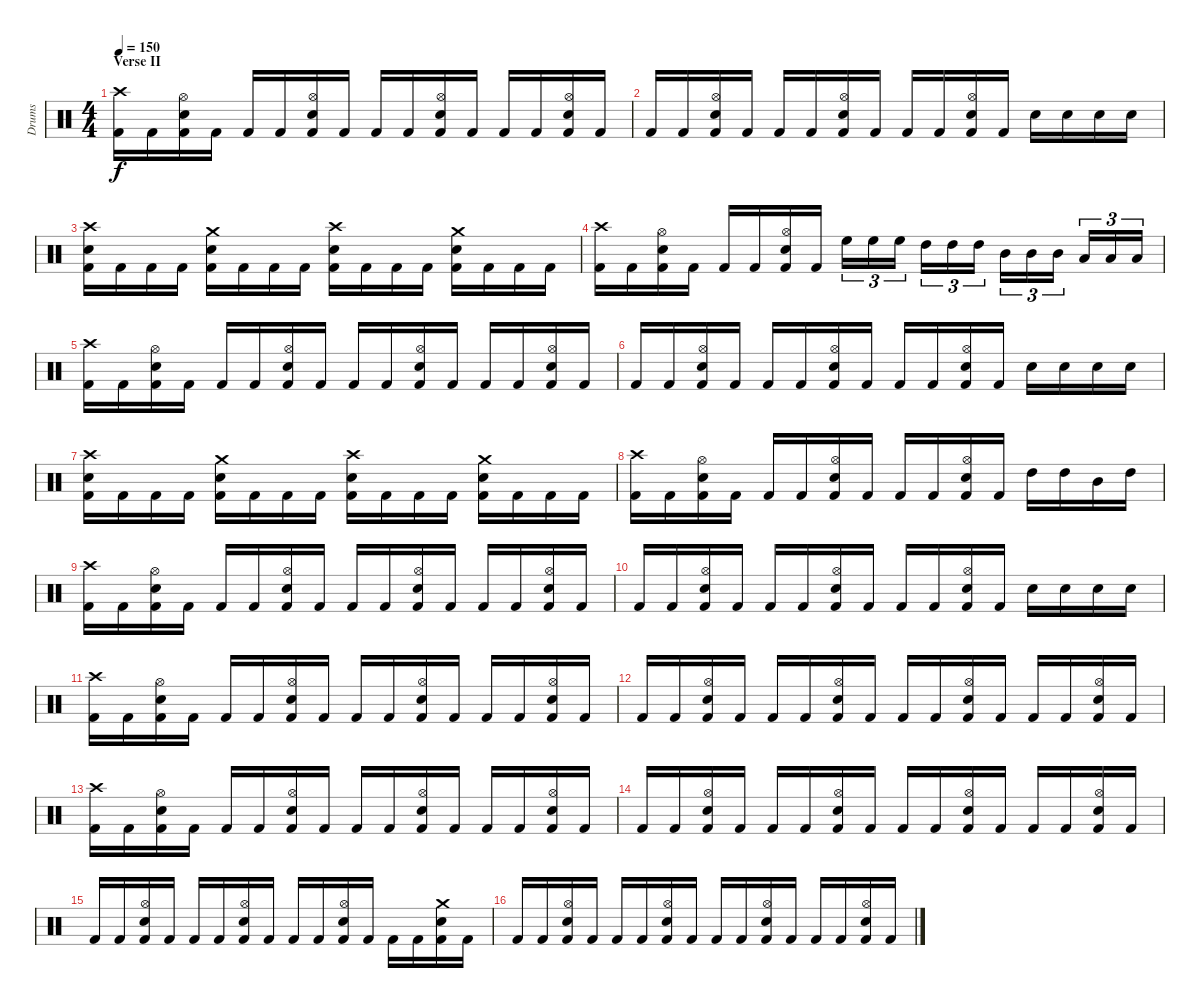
\track ("Drums" "Drums") {instrument percussion}
\staff {score}
\articulation defaults
\ts (4 4)
\section ("" "Verse II")
\tempo 150
\clef neutral
\ks c
("Crash high (hit)" "Kick (hit) 2").16{dy f} "Kick (hit) 2".16 ("Hi-Hat (open)" "Snare (hit) 2" "Kick (hit) 2").16 "Kick (hit) 2".16 "Kick (hit) 2".16 "Kick (hit) 2".16 ("Hi-Hat (open)" "Snare (hit) 2" "Kick (hit) 2").16 "Kick (hit) 2".16 "Kick (hit) 2".16 "Kick (hit) 2".16 ("Hi-Hat (open)" "Snare (hit) 2" "Kick (hit) 2").16 "Kick (hit) 2".16 "Kick (hit) 2".16 "Kick (hit) 2".16 ("Hi-Hat (open)" "Snare (hit) 2" "Kick (hit) 2").16 "Kick (hit) 2".16 |
"Kick (hit) 2".16 "Kick (hit) 2".16 ("Hi-Hat (open)" "Snare (hit) 2" "Kick (hit) 2").16 "Kick (hit) 2".16 "Kick (hit) 2".16 "Kick (hit) 2".16 ("Hi-Hat (open)" "Snare (hit) 2" "Kick (hit) 2").16 "Kick (hit) 2".16 "Kick (hit) 2".16 "Kick (hit) 2".16 ("Hi-Hat (open)" "Snare (hit) 2" "Kick (hit) 2").16 "Kick (hit) 2".16 "Snare (hit) 2".16 "Snare (hit) 2".16 "Snare (hit) 2".16 "Snare (hit) 2".16 |
("Crash high (hit)" "Snare (hit) 2" "Kick (hit) 2").16 "Kick (hit) 2".16 "Kick (hit) 2".16 "Kick (hit) 2".16 ("Crash medium (hit)" "Snare (hit) 2" "Kick (hit) 2").16 "Kick (hit) 2".16 "Kick (hit) 2".16 "Kick (hit) 2".16 ("Crash high (hit)" "Snare (hit) 2" "Kick (hit) 2").16 "Kick (hit) 2".16 "Kick (hit) 2".16 "Kick (hit) 2".16 ("Crash medium (hit)" "Snare (hit) 2" "Kick (hit) 2").16 "Kick (hit) 2".16 "Kick (hit) 2".16 "Kick (hit) 2".16 |
("Crash high (hit)" "Kick (hit) 2").16 "Kick (hit) 2".16 ("Hi-Hat (open)" "Snare (hit) 2" "Kick (hit) 2").16 "Kick (hit) 2".16 "Kick (hit) 2".16 "Kick (hit) 2".16 ("Hi-Hat (open)" "Snare (hit) 2" "Kick (hit) 2").16 "Kick (hit) 2".16 "High Floor Tom (hit)".16{tu (3 2)} "High Floor Tom (hit)".16{tu (3 2)} "High Floor Tom (hit)".16{tu (3 2) beam splitsecondary} "High Tom (hit)".16{tu (3 2)} "High Tom (hit)".16{tu (3 2)} "High Tom (hit)".16{tu (3 2)} "Mid Tom (hit)".16{tu (3 2)} "Mid Tom (hit)".16{tu (3 2)} "Mid Tom (hit)".16{tu (3 2) beam splitsecondary} "Low Tom (hit)".16{tu (3 2)} "Low Tom (hit)".16{tu (3 2)} "Low Tom (hit)".16{tu (3 2)} |
("Crash high (hit)" "Kick (hit) 2").16 "Kick (hit) 2".16 ("Hi-Hat (open)" "Snare (hit) 2" "Kick (hit) 2").16 "Kick (hit) 2".16 "Kick (hit) 2".16 "Kick (hit) 2".16 ("Hi-Hat (open)" "Snare (hit) 2" "Kick (hit) 2").16 "Kick (hit) 2".16 "Kick (hit) 2".16 "Kick (hit) 2".16 ("Hi-Hat (open)" "Snare (hit) 2" "Kick (hit) 2").16 "Kick (hit) 2".16 "Kick (hit) 2".16 "Kick (hit) 2".16 ("Hi-Hat (open)" "Snare (hit) 2" "Kick (hit) 2").16 "Kick (hit) 2".16 |
"Kick (hit) 2".16 "Kick (hit) 2".16 ("Hi-Hat (open)" "Snare (hit) 2" "Kick (hit) 2").16 "Kick (hit) 2".16 "Kick (hit) 2".16 "Kick (hit) 2".16 ("Hi-Hat (open)" "Snare (hit) 2" "Kick (hit) 2").16 "Kick (hit) 2".16 "Kick (hit) 2".16 "Kick (hit) 2".16 ("Hi-Hat (open)" "Snare (hit) 2" "Kick (hit) 2").16 "Kick (hit) 2".16 "Snare (hit) 2".16 "Snare (hit) 2".16 "Snare (hit) 2".16 "Snare (hit) 2".16 |
("Crash high (hit)" "Snare (hit) 2" "Kick (hit) 2").16 "Kick (hit) 2".16 "Kick (hit) 2".16 "Kick (hit) 2".16 ("Crash medium (hit)" "Snare (hit) 2" "Kick (hit) 2").16 "Kick (hit) 2".16 "Kick (hit) 2".16 "Kick (hit) 2".16 ("Crash high (hit)" "Snare (hit) 2" "Kick (hit) 2").16 "Kick (hit) 2".16 "Kick (hit) 2".16 "Kick (hit) 2".16 ("Crash medium (hit)" "Snare (hit) 2" "Kick (hit) 2").16 "Kick (hit) 2".16 "Kick (hit) 2".16 "Kick (hit) 2".16 |
("Crash high (hit)" "Kick (hit) 2").16 "Kick (hit) 2".16 ("Hi-Hat (open)" "Snare (hit) 2" "Kick (hit) 2").16 "Kick (hit) 2".16 "Kick (hit) 2".16 "Kick (hit) 2".16 ("Hi-Hat (open)" "Snare (hit) 2" "Kick (hit) 2").16 "Kick (hit) 2".16 "Kick (hit) 2".16 "Kick (hit) 2".16 ("Hi-Hat (open)" "Snare (hit) 2" "Kick (hit) 2").16 "Kick (hit) 2".16 "High Tom (hit)".16 "High Tom (hit)".16 "Mid Tom (hit)".16 "High Tom (hit)".16 |
("Crash high (hit)" "Kick (hit) 2").16 "Kick (hit) 2".16 ("Hi-Hat (open)" "Snare (hit) 2" "Kick (hit) 2").16 "Kick (hit) 2".16 "Kick (hit) 2".16 "Kick (hit) 2".16 ("Hi-Hat (open)" "Snare (hit) 2" "Kick (hit) 2").16 "Kick (hit) 2".16 "Kick (hit) 2".16 "Kick (hit) 2".16 ("Hi-Hat (open)" "Snare (hit) 2" "Kick (hit) 2").16 "Kick (hit) 2".16 "Kick (hit) 2".16 "Kick (hit) 2".16 ("Hi-Hat (open)" "Snare (hit) 2" "Kick (hit) 2").16 "Kick (hit) 2".16 |
"Kick (hit) 2".16 "Kick (hit) 2".16 ("Hi-Hat (open)" "Snare (hit) 2" "Kick (hit) 2").16 "Kick (hit) 2".16 "Kick (hit) 2".16 "Kick (hit) 2".16 ("Hi-Hat (open)" "Snare (hit) 2" "Kick (hit) 2").16 "Kick (hit) 2".16 "Kick (hit) 2".16 "Kick (hit) 2".16 ("Hi-Hat (open)" "Snare (hit) 2" "Kick (hit) 2").16 "Kick (hit) 2".16 "Snare (hit) 2".16 "Snare (hit) 2".16 "Snare (hit) 2".16 "Snare (hit) 2".16 |
("Crash high (hit)" "Kick (hit) 2").16 "Kick (hit) 2".16 ("Hi-Hat (open)" "Snare (hit) 2" "Kick (hit) 2").16 "Kick (hit) 2".16 "Kick (hit) 2".16 "Kick (hit) 2".16 ("Hi-Hat (open)" "Snare (hit) 2" "Kick (hit) 2").16 "Kick (hit) 2".16 "Kick (hit) 2".16 "Kick (hit) 2".16 ("Hi-Hat (open)" "Snare (hit) 2" "Kick (hit) 2").16 "Kick (hit) 2".16 "Kick (hit) 2".16 "Kick (hit) 2".16 ("Hi-Hat (open)" "Snare (hit) 2" "Kick (hit) 2").16 "Kick (hit) 2".16 |
"Kick (hit) 2".16 "Kick (hit) 2".16 ("Hi-Hat (open)" "Snare (hit) 2" "Kick (hit) 2").16 "Kick (hit) 2".16 "Kick (hit) 2".16 "Kick (hit) 2".16 ("Hi-Hat (open)" "Snare (hit) 2" "Kick (hit) 2").16 "Kick (hit) 2".16 "Kick (hit) 2".16 "Kick (hit) 2".16 ("Hi-Hat (open)" "Snare (hit) 2" "Kick (hit) 2").16 "Kick (hit) 2".16 "Kick (hit) 2".16 "Kick (hit) 2".16 ("Hi-Hat (open)" "Snare (hit) 2" "Kick (hit) 2").16 "Kick (hit) 2".16 |
("Crash high (hit)" "Kick (hit) 2").16 "Kick (hit) 2".16 ("Hi-Hat (open)" "Snare (hit) 2" "Kick (hit) 2").16 "Kick (hit) 2".16 "Kick (hit) 2".16 "Kick (hit) 2".16 ("Hi-Hat (open)" "Snare (hit) 2" "Kick (hit) 2").16 "Kick (hit) 2".16 "Kick (hit) 2".16 "Kick (hit) 2".16 ("Hi-Hat (open)" "Snare (hit) 2" "Kick (hit) 2").16 "Kick (hit) 2".16 "Kick (hit) 2".16 "Kick (hit) 2".16 ("Hi-Hat (open)" "Snare (hit) 2" "Kick (hit) 2").16 "Kick (hit) 2".16 |
"Kick (hit) 2".16 "Kick (hit) 2".16 ("Hi-Hat (open)" "Snare (hit) 2" "Kick (hit) 2").16 "Kick (hit) 2".16 "Kick (hit) 2".16 "Kick (hit) 2".16 ("Hi-Hat (open)" "Snare (hit) 2" "Kick (hit) 2").16 "Kick (hit) 2".16 "Kick (hit) 2".16 "Kick (hit) 2".16 ("Hi-Hat (open)" "Snare (hit) 2" "Kick (hit) 2").16 "Kick (hit) 2".16 "Kick (hit) 2".16 "Kick (hit) 2".16 ("Hi-Hat (open)" "Snare (hit) 2" "Kick (hit) 2").16 "Kick (hit) 2".16 |
"Kick (hit) 2".16 "Kick (hit) 2".16 ("Hi-Hat (open)" "Snare (hit) 2" "Kick (hit) 2").16 "Kick (hit) 2".16 "Kick (hit) 2".16 "Kick (hit) 2".16 ("Hi-Hat (open)" "Snare (hit) 2" "Kick (hit) 2").16 "Kick (hit) 2".16 "Kick (hit) 2".16 "Kick (hit) 2".16 ("Hi-Hat (open)" "Snare (hit) 2" "Kick (hit) 2").16 "Kick (hit) 2".16 "Kick (hit) 2".16 "Kick (hit) 2".16 ("Crash medium (hit)" "Snare (hit) 2" "Kick (hit) 2").16 "Kick (hit) 2".16 |
"Kick (hit) 2".16 "Kick (hit) 2".16 ("Hi-Hat (open)" "Snare (hit) 2" "Kick (hit) 2").16 "Kick (hit) 2".16 "Kick (hit) 2".16 "Kick (hit) 2".16 ("Hi-Hat (open)" "Snare (hit) 2" "Kick (hit) 2").16 "Kick (hit) 2".16 "Kick (hit) 2".16 "Kick (hit) 2".16 ("Hi-Hat (open)" "Snare (hit) 2" "Kick (hit) 2").16 "Kick (hit) 2".16 "Kick (hit) 2".16 "Kick (hit) 2".16 ("Hi-Hat (open)" "Snare (hit) 2" "Kick (hit) 2").16 "Kick (hit) 2".16
